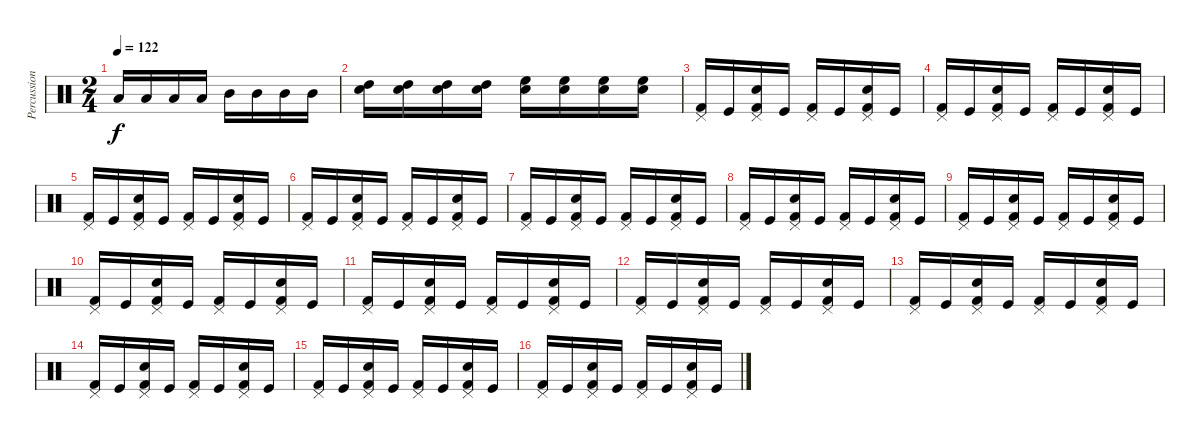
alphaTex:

\track ("Percussions" "Percussion") {instrument percussion}
\staff {score}
\articulation defaults
\ts (2 4)
\tempo 122
\clef neutral
\ks c "Low Tom (hit)".16{dy f} "Low Tom (hit)".16 "Low Tom (hit)".16 "Low Tom (hit)".16 "Mid Tom (hit)".16 "Mid Tom (hit)".16 "Mid Tom (hit)".16 "Mid Tom (hit)".16
|
("High Tom (hit)" "Snare (hit) 2").16 ("High Tom (hit)" "Snare (hit) 2").16 ("High Tom (hit)" "Snare (hit) 2").16 ("High Tom (hit)" "Snare (hit) 2").16 ("High Floor Tom (hit)" "Snare (hit) 2").16 ("High Floor Tom (hit)" "Snare (hit) 2").16 ("High Floor Tom (hit)" "Snare (hit) 2").16 ("High Floor Tom (hit)" "Snare (hit) 2").16 |
("Pedal Hi-Hat (hit)" "Kick (hit) 2").16 "Kick (hit)".16 ("Pedal Hi-Hat (hit)" "Snare (hit) 2" "Kick (hit) 2").16 "Kick (hit)".16 ("Pedal Hi-Hat (hit)" "Kick (hit) 2").16 "Kick (hit)".16 ("Pedal Hi-Hat (hit)" "Snare (hit) 2" "Kick (hit) 2").16 "Kick (hit)".16 |
("Pedal Hi-Hat (hit)" "Kick (hit) 2").16 "Kick (hit)".16 ("Pedal Hi-Hat (hit)" "Snare (hit) 2" "Kick (hit) 2").16 "Kick (hit)".16 ("Pedal Hi-Hat (hit)" "Kick (hit) 2").16 "Kick (hit)".16 ("Pedal Hi-Hat (hit)" "Snare (hit) 2" "Kick (hit) 2").16 "Kick (hit)".16 |
("Pedal Hi-Hat (hit)" "Kick (hit) 2").16 "Kick (hit)".16 ("Pedal Hi-Hat (hit)" "Snare (hit) 2" "Kick (hit) 2").16 "Kick (hit)".16 ("Pedal Hi-Hat (hit)" "Kick (hit) 2").16 "Kick (hit)".16 ("Pedal Hi-Hat (hit)" "Snare (hit) 2" "Kick (hit) 2").16 "Kick (hit)".16 |
("Pedal Hi-Hat (hit)" "Kick (hit) 2").16 "Kick (hit)".16 ("Pedal Hi-Hat (hit)" "Snare (hit) 2" "Kick (hit) 2").16 "Kick (hit)".16 ("Pedal Hi-Hat (hit)" "Kick (hit) 2").16 "Kick (hit)".16 ("Pedal Hi-Hat (hit)" "Snare (hit) 2" "Kick (hit) 2").16 "Kick (hit)".16 |
("Pedal Hi-Hat (hit)" "Kick (hit) 2").16 "Kick (hit)".16 ("Pedal Hi-Hat (hit)" "Snare (hit) 2" "Kick (hit) 2").16 "Kick (hit)".16 ("Pedal Hi-Hat (hit)" "Kick (hit) 2").16 "Kick (hit)".16 ("Pedal Hi-Hat (hit)" "Snare (hit) 2" "Kick (hit) 2").16 "Kick (hit)".16 |
("Pedal Hi-Hat (hit)" "Kick (hit) 2").16 "Kick (hit)".16 ("Pedal Hi-Hat (hit)" "Snare (hit) 2" "Kick (hit) 2").16 "Kick (hit)".16 ("Pedal Hi-Hat (hit)" "Kick (hit) 2").16 "Kick (hit)".16 ("Pedal Hi-Hat (hit)" "Snare (hit) 2" "Kick (hit) 2").16 "Kick (hit)".16 |
("Pedal Hi-Hat (hit)" "Kick (hit) 2").16 "Kick (hit)".16 ("Pedal Hi-Hat (hit)" "Snare (hit) 2" "Kick (hit) 2").16 "Kick (hit)".16 ("Pedal Hi-Hat (hit)" "Kick (hit) 2").16 "Kick (hit)".16 ("Pedal Hi-Hat (hit)" "Snare (hit) 2" "Kick (hit) 2").16 "Kick (hit)".16 |
("Pedal Hi-Hat (hit)" "Kick (hit) 2").16 "Kick (hit)".16 ("Pedal Hi-Hat (hit)" "Snare (hit) 2" "Kick (hit) 2").16 "Kick (hit)".16 ("Pedal Hi-Hat (hit)" "Kick (hit) 2").16 "Kick (hit)".16 ("Pedal Hi-Hat (hit)" "Snare (hit) 2" "Kick (hit) 2").16 "Kick (hit)".16 |
("Pedal Hi-Hat (hit)" "Kick (hit) 2").16 "Kick (hit)".16 ("Pedal Hi-Hat (hit)" "Snare (hit) 2" "Kick (hit) 2").16 "Kick (hit)".16 ("Pedal Hi-Hat (hit)" "Kick (hit) 2").16 "Kick (hit)".16 ("Pedal Hi-Hat (hit)" "Snare (hit) 2" "Kick (hit) 2").16 "Kick (hit)".16 |
("Pedal Hi-Hat (hit)" "Kick (hit) 2").16 "Kick (hit)".16 ("Pedal Hi-Hat (hit)" "Snare (hit) 2" "Kick (hit) 2").16 "Kick (hit)".16 ("Pedal Hi-Hat (hit)" "Kick (hit) 2").16 "Kick (hit)".16 ("Pedal Hi-Hat (hit)" "Snare (hit) 2" "Kick (hit) 2").16 "Kick (hit)".16 |
("Pedal Hi-Hat (hit)" "Kick (hit) 2").16 "Kick (hit)".16 ("Pedal Hi-Hat (hit)" "Snare (hit) 2" "Kick (hit) 2").16 "Kick (hit)".16 ("Pedal Hi-Hat (hit)" "Kick (hit) 2").16 "Kick (hit)".16 ("Pedal Hi-Hat (hit)" "Snare (hit) 2" "Kick (hit) 2").16 "Kick (hit)".16 |
("Pedal Hi-Hat (hit)" "Kick (hit) 2").16 "Kick (hit)".16 ("Pedal Hi-Hat (hit)" "Snare (hit) 2" "Kick (hit) 2").16 "Kick (hit)".16 ("Pedal Hi-Hat (hit)" "Kick (hit) 2").16 "Kick (hit)".16 ("Pedal Hi-Hat (hit)" "Snare (hit) 2" "Kick (hit) 2").16 "Kick (hit)".16 |
("Pedal Hi-Hat (hit)" "Kick (hit) 2").16 "Kick (hit)".16 ("Pedal Hi-Hat (hit)" "Snare (hit) 2" "Kick (hit) 2").16 "Kick (hit)".16 ("Pedal Hi-Hat (hit)" "Kick (hit) 2").16 "Kick (hit)".16 ("Pedal Hi-Hat (hit)" "Snare (hit) 2" "Kick (hit) 2").16 "Kick (hit)".16 |
("Pedal Hi-Hat (hit)" "Kick (hit) 2").16 "Kick (hit)".16 ("Pedal Hi-Hat (hit)" "Snare (hit) 2" "Kick (hit) 2").16 "Kick (hit)".16 ("Pedal Hi-Hat (hit)" "Kick (hit) 2").16 "Kick (hit)".16 ("Pedal Hi-Hat (hit)" "Snare (hit) 2" "Kick (hit) 2").16 "Kick (hit)".16
